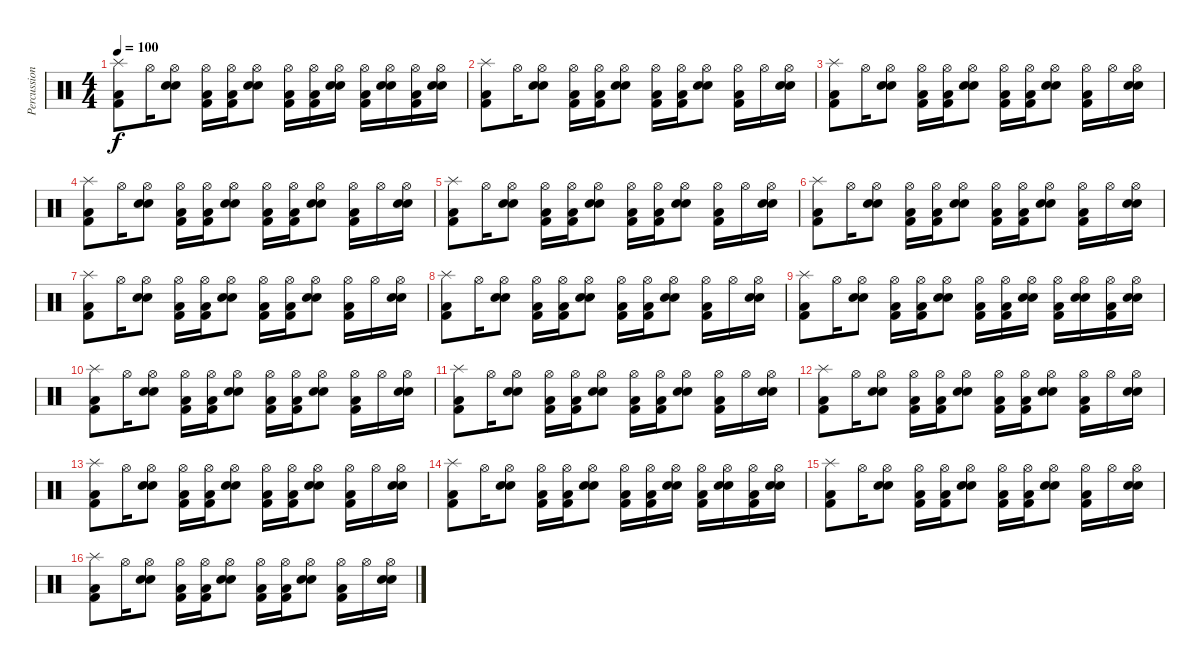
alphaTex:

\track ("Percussions" "Percussion") {instrument percussion}
\staff {score}
\articulation defaults
\ts (4 4)
\tempo 100
\clef neutral
\ks c
("Splash (hit)" "Kick (hit) 2" "Low Floor Tom (hit)").8{dy f} "Hi-Hat (open)".16 ("Hi-Hat (open)" "Snare (hit) 2" "Electric Snare (hit)").8 ("Hi-Hat (open)" "Kick (hit) 2" "Low Floor Tom (hit)").16 ("Hi-Hat (open)" "Kick (hit) 2" "Low Floor Tom (hit)").16 ("Hi-Hat (open)" "Snare (hit) 2" "Electric Snare (hit)").8 ("Hi-Hat (open)" "Kick (hit) 2" "Low Floor Tom (hit)").16 ("Hi-Hat (open)" "Kick (hit) 2" "Low Floor Tom (hit)").16 ("Hi-Hat (open)" "Snare (hit) 2" "Electric Snare (hit)").16 ("Hi-Hat (open)" "Kick (hit) 2" "Low Floor Tom (hit)").16 ("Hi-Hat (open)" "Snare (hit) 2" "Electric Snare (hit)").16 ("Hi-Hat (open)" "Kick (hit) 2" "Low Floor Tom (hit)").16 ("Hi-Hat (open)" "Snare (hit) 2" "Electric Snare (hit)").16 |
("Splash (hit)" "Kick (hit) 2" "Low Floor Tom (hit)").8 "Hi-Hat (open)".16 ("Hi-Hat (open)" "Snare (hit) 2" "Electric Snare (hit)").8 ("Hi-Hat (open)" "Kick (hit) 2" "Low Floor Tom (hit)").16 ("Hi-Hat (open)" "Kick (hit) 2" "Low Floor Tom (hit)").16 ("Hi-Hat (open)" "Snare (hit) 2" "Electric Snare (hit)").8 ("Hi-Hat (open)" "Kick (hit) 2" "Low Floor Tom (hit)").16 ("Hi-Hat (open)" "Kick (hit) 2" "Low Floor Tom (hit)").16 ("Hi-Hat (open)" "Snare (hit) 2" "Electric Snare (hit)").8 ("Hi-Hat (open)" "Kick (hit) 2" "Low Floor Tom (hit)").16 "Hi-Hat (open)".16 ("Hi-Hat (open)" "Snare (hit) 2" "Electric Snare (hit)").16 |
("Splash (hit)" "Kick (hit) 2" "Low Floor Tom (hit)").8 "Hi-Hat (open)".16 ("Hi-Hat (open)" "Snare (hit) 2" "Electric Snare (hit)").8 ("Hi-Hat (open)" "Kick (hit) 2" "Low Floor Tom (hit)").16 ("Hi-Hat (open)" "Kick (hit) 2" "Low Floor Tom (hit)").16 ("Hi-Hat (open)" "Snare (hit) 2" "Electric Snare (hit)").8 ("Hi-Hat (open)" "Kick (hit) 2" "Low Floor Tom (hit)").16 ("Hi-Hat (open)" "Kick (hit) 2" "Low Floor Tom (hit)").16 ("Hi-Hat (open)" "Snare (hit) 2" "Electric Snare (hit)").8 ("Hi-Hat (open)" "Kick (hit) 2" "Low Floor Tom (hit)").16 "Hi-Hat (open)".16 ("Hi-Hat (open)" "Snare (hit) 2" "Electric Snare (hit)").16 |
("Splash (hit)" "Kick (hit) 2" "Low Floor Tom (hit)").8 "Hi-Hat (open)".16 ("Hi-Hat (open)" "Snare (hit) 2" "Electric Snare (hit)").8 ("Hi-Hat (open)" "Kick (hit) 2" "Low Floor Tom (hit)").16 ("Hi-Hat (open)" "Kick (hit) 2" "Low Floor Tom (hit)").16 ("Hi-Hat (open)" "Snare (hit) 2" "Electric Snare (hit)").8 ("Hi-Hat (open)" "Kick (hit) 2" "Low Floor Tom (hit)").16 ("Hi-Hat (open)" "Kick (hit) 2" "Low Floor Tom (hit)").16 ("Hi-Hat (open)" "Snare (hit) 2" "Electric Snare (hit)").8 ("Hi-Hat (open)" "Kick (hit) 2" "Low Floor Tom (hit)").16 "Hi-Hat (open)".16 ("Hi-Hat (open)" "Snare (hit) 2" "Electric Snare (hit)").16 |
("Splash (hit)" "Kick (hit) 2" "Low Floor Tom (hit)").8 "Hi-Hat (open)".16 ("Hi-Hat (open)" "Snare (hit) 2" "Electric Snare (hit)").8 ("Hi-Hat (open)" "Kick (hit) 2" "Low Floor Tom (hit)").16 ("Hi-Hat (open)" "Kick (hit) 2" "Low Floor Tom (hit)").16 ("Hi-Hat (open)" "Snare (hit) 2" "Electric Snare (hit)").8 ("Hi-Hat (open)" "Kick (hit) 2" "Low Floor Tom (hit)").16 ("Hi-Hat (open)" "Kick (hit) 2" "Low Floor Tom (hit)").16 ("Hi-Hat (open)" "Snare (hit) 2" "Electric Snare (hit)").8 ("Hi-Hat (open)" "Kick (hit) 2" "Low Floor Tom (hit)").16 "Hi-Hat (open)".16 ("Hi-Hat (open)" "Snare (hit) 2" "Electric Snare (hit)").16 |
("Splash (hit)" "Kick (hit) 2" "Low Floor Tom (hit)").8 "Hi-Hat (open)".16 ("Hi-Hat (open)" "Snare (hit) 2" "Electric Snare (hit)").8 ("Hi-Hat (open)" "Kick (hit) 2" "Low Floor Tom (hit)").16 ("Hi-Hat (open)" "Kick (hit) 2" "Low Floor Tom (hit)").16 ("Hi-Hat (open)" "Snare (hit) 2" "Electric Snare (hit)").8 ("Hi-Hat (open)" "Kick (hit) 2" "Low Floor Tom (hit)").16 ("Hi-Hat (open)" "Kick (hit) 2" "Low Floor Tom (hit)").16 ("Hi-Hat (open)" "Snare (hit) 2" "Electric Snare (hit)").8 ("Hi-Hat (open)" "Kick (hit) 2" "Low Floor Tom (hit)").16 "Hi-Hat (open)".16 ("Hi-Hat (open)" "Snare (hit) 2" "Electric Snare (hit)").16 |
("Splash (hit)" "Kick (hit) 2" "Low Floor Tom (hit)").8 "Hi-Hat (open)".16 ("Hi-Hat (open)" "Snare (hit) 2" "Electric Snare (hit)").8 ("Hi-Hat (open)" "Kick (hit) 2" "Low Floor Tom (hit)").16 ("Hi-Hat (open)" "Kick (hit) 2" "Low Floor Tom (hit)").16 ("Hi-Hat (open)" "Snare (hit) 2" "Electric Snare (hit)").8 ("Hi-Hat (open)" "Kick (hit) 2" "Low Floor Tom (hit)").16 ("Hi-Hat (open)" "Kick (hit) 2" "Low Floor Tom (hit)").16 ("Hi-Hat (open)" "Snare (hit) 2" "Electric Snare (hit)").8 ("Hi-Hat (open)" "Kick (hit) 2" "Low Floor Tom (hit)").16 "Hi-Hat (open)".16 ("Hi-Hat (open)" "Snare (hit) 2" "Electric Snare (hit)").16 |
("Splash (hit)" "Kick (hit) 2" "Low Floor Tom (hit)").8 "Hi-Hat (open)".16 ("Hi-Hat (open)" "Snare (hit) 2" "Electric Snare (hit)").8 ("Hi-Hat (open)" "Kick (hit) 2" "Low Floor Tom (hit)").16 ("Hi-Hat (open)" "Kick (hit) 2" "Low Floor Tom (hit)").16 ("Hi-Hat (open)" "Snare (hit) 2" "Electric Snare (hit)").8 ("Hi-Hat (open)" "Kick (hit) 2" "Low Floor Tom (hit)").16 ("Hi-Hat (open)" "Kick (hit) 2" "Low Floor Tom (hit)").16 ("Hi-Hat (open)" "Snare (hit) 2" "Electric Snare (hit)").8 ("Hi-Hat (open)" "Kick (hit) 2" "Low Floor Tom (hit)").16 "Hi-Hat (open)".16 ("Hi-Hat (open)" "Snare (hit) 2" "Electric Snare (hit)").16 |
("Splash (hit)" "Kick (hit) 2" "Low Floor Tom (hit)").8 "Hi-Hat (open)".16 ("Hi-Hat (open)" "Snare (hit) 2" "Electric Snare (hit)").8 ("Hi-Hat (open)" "Kick (hit) 2" "Low Floor Tom (hit)").16 ("Hi-Hat (open)" "Kick (hit) 2" "Low Floor Tom (hit)").16 ("Hi-Hat (open)" "Snare (hit) 2" "Electric Snare (hit)").8 ("Hi-Hat (open)" "Kick (hit) 2" "Low Floor Tom (hit)").16 ("Hi-Hat (open)" "Kick (hit) 2" "Low Floor Tom (hit)").16 ("Hi-Hat (open)" "Snare (hit) 2" "Electric Snare (hit)").16 ("Hi-Hat (open)" "Kick (hit) 2" "Low Floor Tom (hit)").16 ("Hi-Hat (open)" "Snare (hit) 2" "Electric Snare (hit)").16 ("Hi-Hat (open)" "Kick (hit) 2" "Low Floor Tom (hit)").16 ("Hi-Hat (open)" "Snare (hit) 2" "Electric Snare (hit)").16 |
("Splash (hit)" "Kick (hit) 2" "Low Floor Tom (hit)").8 "Hi-Hat (open)".16 ("Hi-Hat (open)" "Snare (hit) 2" "Electric Snare (hit)").8 ("Hi-Hat (open)" "Kick (hit) 2" "Low Floor Tom (hit)").16 ("Hi-Hat (open)" "Kick (hit) 2" "Low Floor Tom (hit)").16 ("Hi-Hat (open)" "Snare (hit) 2" "Electric Snare (hit)").8 ("Hi-Hat (open)" "Kick (hit) 2" "Low Floor Tom (hit)").16 ("Hi-Hat (open)" "Kick (hit) 2" "Low Floor Tom (hit)").16 ("Hi-Hat (open)" "Snare (hit) 2" "Electric Snare (hit)").8 ("Hi-Hat (open)" "Kick (hit) 2" "Low Floor Tom (hit)").16 "Hi-Hat (open)".16 ("Hi-Hat (open)" "Snare (hit) 2" "Electric Snare (hit)").16 |
("Splash (hit)" "Kick (hit) 2" "Low Floor Tom (hit)").8 "Hi-Hat (open)".16 ("Hi-Hat (open)" "Snare (hit) 2" "Electric Snare (hit)").8 ("Hi-Hat (open)" "Kick (hit) 2" "Low Floor Tom (hit)").16 ("Hi-Hat (open)" "Kick (hit) 2" "Low Floor Tom (hit)").16 ("Hi-Hat (open)" "Snare (hit) 2" "Electric Snare (hit)").8 ("Hi-Hat (open)" "Kick (hit) 2" "Low Floor Tom (hit)").16 ("Hi-Hat (open)" "Kick (hit) 2" "Low Floor Tom (hit)").16 ("Hi-Hat (open)" "Snare (hit) 2" "Electric Snare (hit)").8 ("Hi-Hat (open)" "Kick (hit) 2" "Low Floor Tom (hit)").16 "Hi-Hat (open)".16 ("Hi-Hat (open)" "Snare (hit) 2" "Electric Snare (hit)").16 |
("Splash (hit)" "Kick (hit) 2" "Low Floor Tom (hit)").8 "Hi-Hat (open)".16 ("Hi-Hat (open)" "Snare (hit) 2" "Electric Snare (hit)").8 ("Hi-Hat (open)" "Kick (hit) 2" "Low Floor Tom (hit)").16 ("Hi-Hat (open)" "Kick (hit) 2" "Low Floor Tom (hit)").16 ("Hi-Hat (open)" "Snare (hit) 2" "Electric Snare (hit)").8 ("Hi-Hat (open)" "Kick (hit) 2" "Low Floor Tom (hit)").16 ("Hi-Hat (open)" "Kick (hit) 2" "Low Floor Tom (hit)").16 ("Hi-Hat (open)" "Snare (hit) 2" "Electric Snare (hit)").8 ("Hi-Hat (open)" "Kick (hit) 2" "Low Floor Tom (hit)").16 "Hi-Hat (open)".16 ("Hi-Hat (open)" "Snare (hit) 2" "Electric Snare (hit)").16 |
("Splash (hit)" "Kick (hit) 2" "Low Floor Tom (hit)").8 "Hi-Hat (open)".16 ("Hi-Hat (open)" "Snare (hit) 2" "Electric Snare (hit)").8 ("Hi-Hat (open)" "Kick (hit) 2" "Low Floor Tom (hit)").16 ("Hi-Hat (open)" "Kick (hit) 2" "Low Floor Tom (hit)").16 ("Hi-Hat (open)" "Snare (hit) 2" "Electric Snare (hit)").8 ("Hi-Hat (open)" "Kick (hit) 2" "Low Floor Tom (hit)").16 ("Hi-Hat (open)" "Kick (hit) 2" "Low Floor Tom (hit)").16 ("Hi-Hat (open)" "Snare (hit) 2" "Electric Snare (hit)").8 ("Hi-Hat (open)" "Kick (hit) 2" "Low Floor Tom (hit)").16 "Hi-Hat (open)".16 ("Hi-Hat (open)" "Snare (hit) 2" "Electric Snare (hit)").16 |
("Splash (hit)" "Kick (hit) 2" "Low Floor Tom (hit)").8 "Hi-Hat (open)".16 ("Hi-Hat (open)" "Snare (hit) 2" "Electric Snare (hit)").8 ("Hi-Hat (open)" "Kick (hit) 2" "Low Floor Tom (hit)").16 ("Hi-Hat (open)" "Kick (hit) 2" "Low Floor Tom (hit)").16 ("Hi-Hat (open)" "Snare (hit) 2" "Electric Snare (hit)").8 ("Hi-Hat (open)" "Kick (hit) 2" "Low Floor Tom (hit)").16 ("Hi-Hat (open)" "Kick (hit) 2" "Low Floor Tom (hit)").16 ("Hi-Hat (open)" "Snare (hit) 2" "Electric Snare (hit)").16 ("Hi-Hat (open)" "Kick (hit) 2" "Low Floor Tom (hit)").16 ("Hi-Hat (open)" "Snare (hit) 2" "Electric Snare (hit)").16 ("Hi-Hat (open)" "Kick (hit) 2" "Low Floor Tom (hit)").16 ("Hi-Hat (open)" "Snare (hit) 2" "Electric Snare (hit)").16 |
("Splash (hit)" "Kick (hit) 2" "Low Floor Tom (hit)").8 "Hi-Hat (open)".16 ("Hi-Hat (open)" "Snare (hit) 2" "Electric Snare (hit)").8 ("Hi-Hat (open)" "Kick (hit) 2" "Low Floor Tom (hit)").16 ("Hi-Hat (open)" "Kick (hit) 2" "Low Floor Tom (hit)").16 ("Hi-Hat (open)" "Snare (hit) 2" "Electric Snare (hit)").8 ("Hi-Hat (open)" "Kick (hit) 2" "Low Floor Tom (hit)").16 ("Hi-Hat (open)" "Kick (hit) 2" "Low Floor Tom (hit)").16 ("Hi-Hat (open)" "Snare (hit) 2" "Electric Snare (hit)").8 ("Hi-Hat (open)" "Kick (hit) 2" "Low Floor Tom (hit)").16 "Hi-Hat (open)".16 ("Hi-Hat (open)" "Snare (hit) 2" "Electric Snare (hit)").16 |
("Splash (hit)" "Kick (hit) 2" "Low Floor Tom (hit)").8 "Hi-Hat (open)".16 ("Hi-Hat (open)" "Snare (hit) 2" "Electric Snare (hit)").8 ("Hi-Hat (open)" "Kick (hit) 2" "Low Floor Tom (hit)").16 ("Hi-Hat (open)" "Kick (hit) 2" "Low Floor Tom (hit)").16 ("Hi-Hat (open)" "Snare (hit) 2" "Electric Snare (hit)").8 ("Hi-Hat (open)" "Kick (hit) 2" "Low Floor Tom (hit)").16 ("Hi-Hat (open)" "Kick (hit) 2" "Low Floor Tom (hit)").16 ("Hi-Hat (open)" "Snare (hit) 2" "Electric Snare (hit)").8 ("Hi-Hat (open)" "Kick (hit) 2" "Low Floor Tom (hit)").16 "Hi-Hat (open)".16 ("Hi-Hat (open)" "Snare (hit) 2" "Electric Snare (hit)").16
